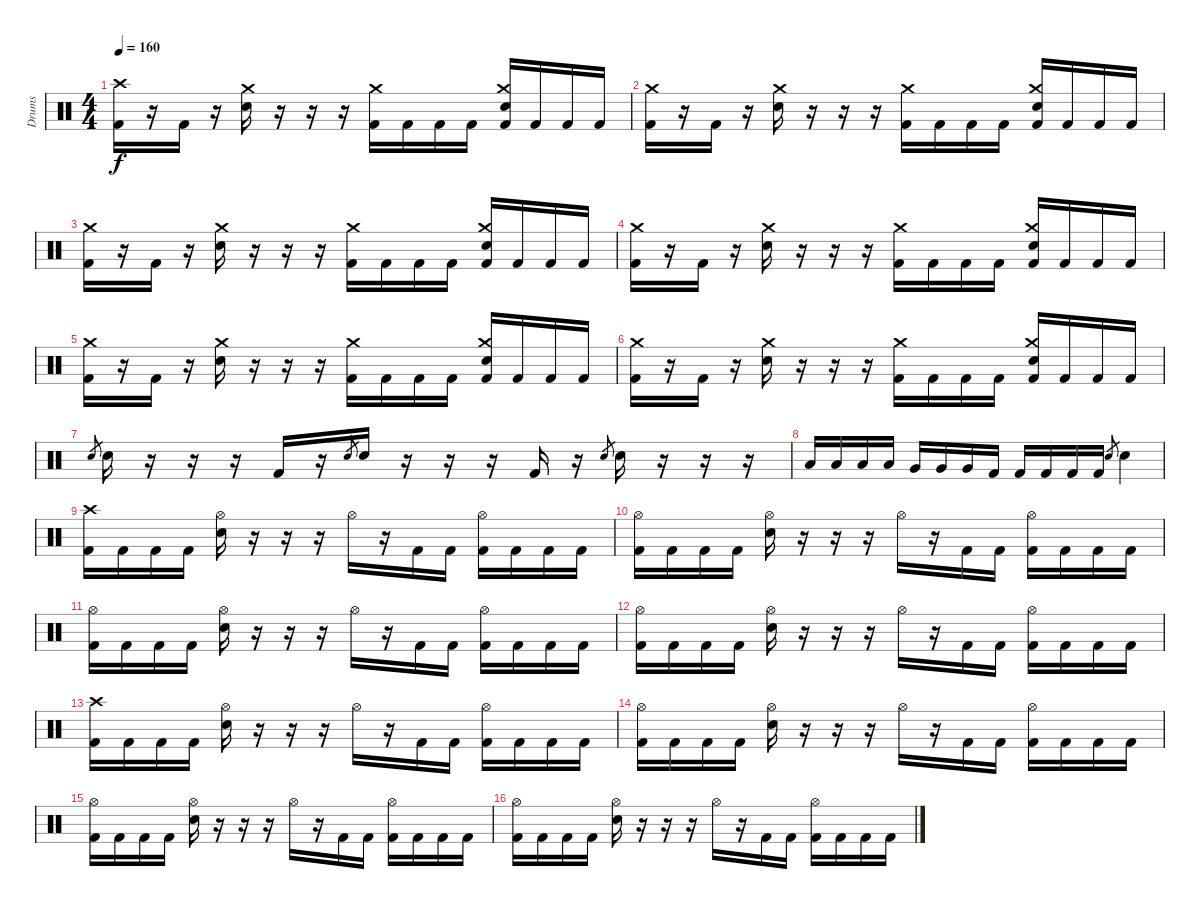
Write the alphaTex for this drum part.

\track ("Drums" "Drums") {instrument percussion}
\staff {score}
\articulation defaults
\ts (4 4)
\tempo 160
\clef neutral
\ks c
("Crash high (hit)" "Kick (hit) 2").16{dy f} r.16 "Kick (hit) 2".16 r.16 ("Crash medium (hit)" "Electric Snare (hit)").16 r.16 r.16 r.16 ("Crash medium (hit)" "Kick (hit) 2").16 "Kick (hit) 2".16 "Kick (hit) 2".16 "Kick (hit) 2".16 ("Crash medium (hit)" "Electric Snare (hit)" "Kick (hit) 2").16 "Kick (hit) 2".16 "Kick (hit) 2".16 "Kick (hit) 2".16 |
("Crash medium (hit)" "Kick (hit) 2").16 r.16 "Kick (hit) 2".16 r.16 ("Crash medium (hit)" "Electric Snare (hit)").16 r.16 r.16 r.16 ("Crash medium (hit)" "Kick (hit) 2").16 "Kick (hit) 2".16 "Kick (hit) 2".16 "Kick (hit) 2".16 ("Crash medium (hit)" "Electric Snare (hit)" "Kick (hit) 2").16 "Kick (hit) 2".16 "Kick (hit) 2".16 "Kick (hit) 2".16 |
("Crash medium (hit)" "Kick (hit) 2").16 r.16 "Kick (hit) 2".16 r.16 ("Crash medium (hit)" "Electric Snare (hit)").16 r.16 r.16 r.16 ("Crash medium (hit)" "Kick (hit) 2").16 "Kick (hit) 2".16 "Kick (hit) 2".16 "Kick (hit) 2".16 ("Crash medium (hit)" "Electric Snare (hit)" "Kick (hit) 2").16 "Kick (hit) 2".16 "Kick (hit) 2".16 "Kick (hit) 2".16 |
("Crash medium (hit)" "Kick (hit) 2").16 r.16 "Kick (hit) 2".16 r.16 ("Crash medium (hit)" "Electric Snare (hit)").16 r.16 r.16 r.16 ("Crash medium (hit)" "Kick (hit) 2").16 "Kick (hit) 2".16 "Kick (hit) 2".16 "Kick (hit) 2".16 ("Crash medium (hit)" "Electric Snare (hit)" "Kick (hit) 2").16 "Kick (hit) 2".16 "Kick (hit) 2".16 "Kick (hit) 2".16 |
("Crash medium (hit)" "Kick (hit) 2").16 r.16 "Kick (hit) 2".16 r.16 ("Crash medium (hit)" "Electric Snare (hit)").16 r.16 r.16 r.16 ("Crash medium (hit)" "Kick (hit) 2").16 "Kick (hit) 2".16 "Kick (hit) 2".16 "Kick (hit) 2".16 ("Crash medium (hit)" "Electric Snare (hit)" "Kick (hit) 2").16 "Kick (hit) 2".16 "Kick (hit) 2".16 "Kick (hit) 2".16 |
("Crash medium (hit)" "Kick (hit) 2").16 r.16 "Kick (hit) 2".16 r.16 ("Crash medium (hit)" "Electric Snare (hit)").16 r.16 r.16 r.16 ("Crash medium (hit)" "Kick (hit) 2").16 "Kick (hit) 2".16 "Kick (hit) 2".16 "Kick (hit) 2".16 ("Crash medium (hit)" "Electric Snare (hit)" "Kick (hit) 2").16 "Kick (hit) 2".16 "Kick (hit) 2".16 "Kick (hit) 2".16 |
"Electric Snare (hit)".8{gr} "Electric Snare (hit)".16 r.16 r.16 r.16 "Kick (hit) 2".16 r.16 "Electric Snare (hit)".8{gr} "Electric Snare (hit)".16 r.16 r.16 r.16 "Kick (hit) 2".16 r.16 "Electric Snare (hit)".8{gr} "Electric Snare (hit)".16 r.16 r.16 r.16 |
"Low Tom (hit)".16 "Low Tom (hit)".16 "Low Tom (hit)".16 "Low Tom (hit)".16 "Very Low Tom (hit)".16 "Very Low Tom (hit)".16 "Very Low Tom (hit)".16 "Kick (hit) 2".16 "Kick (hit) 2".16 "Kick (hit) 2".16 "Kick (hit) 2".16 "Kick (hit) 2".16 "Electric Snare (hit)".8{gr} "Electric Snare (hit)".4 |
("Crash high (hit)" "Kick (hit) 2").16 "Kick (hit) 2".16 "Kick (hit) 2".16 "Kick (hit) 2".16 ("Hi-Hat (open)" "Electric Snare (hit)").16 r.16 r.16 r.16 "Hi-Hat (open)".16 r.16 "Kick (hit) 2".16 "Kick (hit) 2".16 ("Hi-Hat (open)" "Kick (hit) 2").16 "Kick (hit) 2".16 "Kick (hit) 2".16 "Kick (hit) 2".16 |
("Hi-Hat (open)" "Kick (hit) 2").16 "Kick (hit) 2".16 "Kick (hit) 2".16 "Kick (hit) 2".16 ("Hi-Hat (open)" "Electric Snare (hit)").16 r.16 r.16 r.16 "Hi-Hat (open)".16 r.16 "Kick (hit) 2".16 "Kick (hit) 2".16 ("Hi-Hat (open)" "Kick (hit) 2").16 "Kick (hit) 2".16 "Kick (hit) 2".16 "Kick (hit) 2".16 |
("Hi-Hat (open)" "Kick (hit) 2").16 "Kick (hit) 2".16 "Kick (hit) 2".16 "Kick (hit) 2".16 ("Hi-Hat (open)" "Electric Snare (hit)").16 r.16 r.16 r.16 "Hi-Hat (open)".16 r.16 "Kick (hit) 2".16 "Kick (hit) 2".16 ("Hi-Hat (open)" "Kick (hit) 2").16 "Kick (hit) 2".16 "Kick (hit) 2".16 "Kick (hit) 2".16 |
("Hi-Hat (open)" "Kick (hit) 2").16 "Kick (hit) 2".16 "Kick (hit) 2".16 "Kick (hit) 2".16 ("Hi-Hat (open)" "Electric Snare (hit)").16 r.16 r.16 r.16 "Hi-Hat (open)".16 r.16 "Kick (hit) 2".16 "Kick (hit) 2".16 ("Hi-Hat (open)" "Kick (hit) 2").16 "Kick (hit) 2".16 "Kick (hit) 2".16 "Kick (hit) 2".16 |
("Crash high (hit)" "Kick (hit) 2").16 "Kick (hit) 2".16 "Kick (hit) 2".16 "Kick (hit) 2".16 ("Hi-Hat (open)" "Electric Snare (hit)").16 r.16 r.16 r.16 "Hi-Hat (open)".16 r.16 "Kick (hit) 2".16 "Kick (hit) 2".16 ("Hi-Hat (open)" "Kick (hit) 2").16 "Kick (hit) 2".16 "Kick (hit) 2".16 "Kick (hit) 2".16 |
("Hi-Hat (open)" "Kick (hit) 2").16 "Kick (hit) 2".16 "Kick (hit) 2".16 "Kick (hit) 2".16 ("Hi-Hat (open)" "Electric Snare (hit)").16 r.16 r.16 r.16 "Hi-Hat (open)".16 r.16 "Kick (hit) 2".16 "Kick (hit) 2".16 ("Hi-Hat (open)" "Kick (hit) 2").16 "Kick (hit) 2".16 "Kick (hit) 2".16 "Kick (hit) 2".16 |
("Hi-Hat (open)" "Kick (hit) 2").16 "Kick (hit) 2".16 "Kick (hit) 2".16 "Kick (hit) 2".16 ("Hi-Hat (open)" "Electric Snare (hit)").16 r.16 r.16 r.16 "Hi-Hat (open)".16 r.16 "Kick (hit) 2".16 "Kick (hit) 2".16 ("Hi-Hat (open)" "Kick (hit) 2").16 "Kick (hit) 2".16 "Kick (hit) 2".16 "Kick (hit) 2".16 |
("Hi-Hat (open)" "Kick (hit) 2").16 "Kick (hit) 2".16 "Kick (hit) 2".16 "Kick (hit) 2".16 ("Hi-Hat (open)" "Electric Snare (hit)").16 r.16 r.16 r.16 "Hi-Hat (open)".16 r.16 "Kick (hit) 2".16 "Kick (hit) 2".16 ("Hi-Hat (open)" "Kick (hit) 2").16 "Kick (hit) 2".16 "Kick (hit) 2".16 "Kick (hit) 2".16
